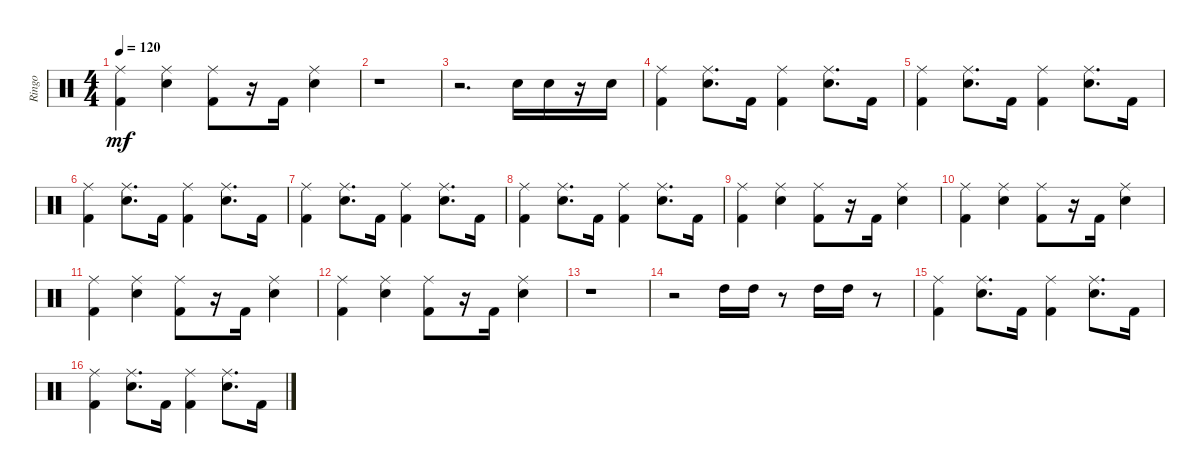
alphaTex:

\track ("Ringo" "Ringo") {instrument percussion}
\staff {score}
\articulation defaults
\ts (4 4)
\tempo 120
\clef neutral
\ks c
("Kick (hit) 2" "Ride (middle)").4{dy mf} ("Electric Snare (hit)" "Ride (middle)").4 ("Ride (middle)" "Kick (hit) 2").8 r.16 "Kick (hit) 2".16 ("Electric Snare (hit)" "Ride (middle)").4 |
r.1 |
r.2{d} "Electric Snare (hit)".16 "Electric Snare (hit)".16 r.16 "Electric Snare (hit)".16 |
("Kick (hit) 2" "Ride (middle)").4 ("Electric Snare (hit)" "Ride (middle)").8{d} "Kick (hit) 2".16 ("Kick (hit) 2" "Ride (middle)").4 ("Electric Snare (hit)" "Ride (middle)").8{d} "Kick (hit) 2".16 |
("Kick (hit) 2" "Ride (middle)").4 ("Electric Snare (hit)" "Ride (middle)").8{d} "Kick (hit) 2".16 ("Kick (hit) 2" "Ride (middle)").4 ("Electric Snare (hit)" "Ride (middle)").8{d} "Kick (hit) 2".16 |
("Kick (hit) 2" "Ride (middle)").4 ("Electric Snare (hit)" "Ride (middle)").8{d} "Kick (hit) 2".16 ("Kick (hit) 2" "Ride (middle)").4 ("Electric Snare (hit)" "Ride (middle)").8{d} "Kick (hit) 2".16 |
("Kick (hit) 2" "Ride (middle)").4 ("Electric Snare (hit)" "Ride (middle)").8{d} "Kick (hit) 2".16 ("Kick (hit) 2" "Ride (middle)").4 ("Electric Snare (hit)" "Ride (middle)").8{d} "Kick (hit) 2".16 |
("Kick (hit) 2" "Ride (middle)").4 ("Electric Snare (hit)" "Ride (middle)").8{d} "Kick (hit) 2".16 ("Kick (hit) 2" "Ride (middle)").4 ("Electric Snare (hit)" "Ride (middle)").8{d} "Kick (hit) 2".16 |
("Kick (hit) 2" "Ride (middle)").4 ("Electric Snare (hit)" "Ride (middle)").4 ("Ride (middle)" "Kick (hit) 2").8 r.16 "Kick (hit) 2".16 ("Electric Snare (hit)" "Ride (middle)").4 |
("Kick (hit) 2" "Ride (middle)").4 ("Electric Snare (hit)" "Ride (middle)").4 ("Ride (middle)" "Kick (hit) 2").8 r.16 "Kick (hit) 2".16 ("Electric Snare (hit)" "Ride (middle)").4 |
("Kick (hit) 2" "Ride (middle)").4 ("Electric Snare (hit)" "Ride (middle)").4 ("Ride (middle)" "Kick (hit) 2").8 r.16 "Kick (hit) 2".16 ("Electric Snare (hit)" "Ride (middle)").4 |
("Kick (hit) 2" "Ride (middle)").4 ("Electric Snare (hit)" "Ride (middle)").4 ("Ride (middle)" "Kick (hit) 2").8 r.16 "Kick (hit) 2".16 ("Electric Snare (hit)" "Ride (middle)").4 |
r.1 |
r.2 "High Tom (hit)".16 "High Tom (hit)".16 r.8 "High Tom (hit)".16 "High Tom (hit)".16 r.8 |
("Kick (hit) 2" "Ride (middle)").4 ("Electric Snare (hit)" "Ride (middle)").8{d} "Kick (hit) 2".16 ("Kick (hit) 2" "Ride (middle)").4 ("Electric Snare (hit)" "Ride (middle)").8{d} "Kick (hit) 2".16 |
("Kick (hit) 2" "Ride (middle)").4 ("Electric Snare (hit)" "Ride (middle)").8{d} "Kick (hit) 2".16 ("Kick (hit) 2" "Ride (middle)").4 ("Electric Snare (hit)" "Ride (middle)").8{d} "Kick (hit) 2".16
